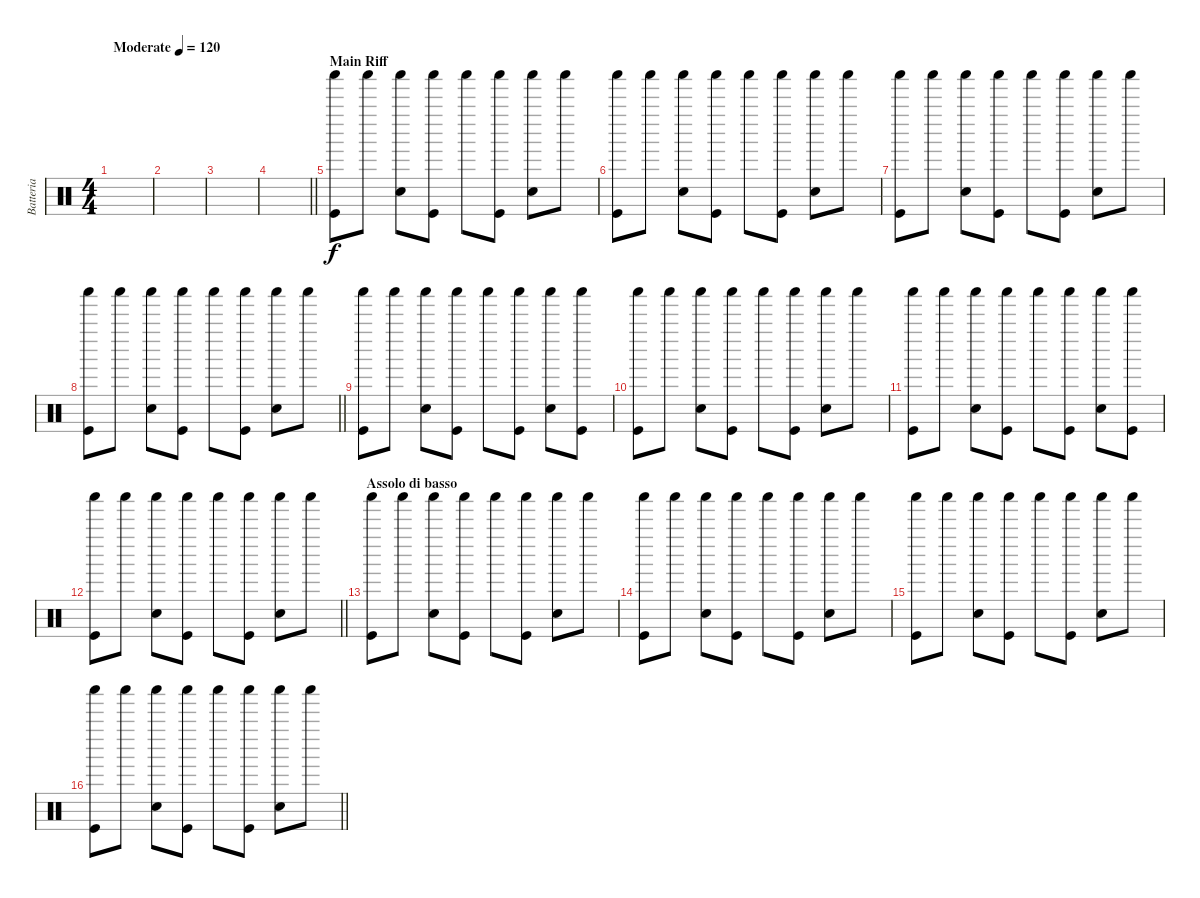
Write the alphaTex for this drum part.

\track ("Batteria" "Batteria") {instrument percussion}
\staff {score}
\articulation defaults
\ts (4 4)
\tempo (120 "Moderate")
\clef neutral
\ks c
|
|
|
\barLineRight lightlight
|
\section ("" "Main Riff")
("Shaker (hit)" "Kick (hit)").8 "Shaker (hit)".8 ("Shaker (hit)" "Snare (hit) 2").8 ("Shaker (hit)" "Kick (hit)").8 "Shaker (hit)".8 ("Shaker (hit)" "Kick (hit)").8 ("Shaker (hit)" "Snare (hit) 2").8 "Shaker (hit)".8 |
("Shaker (hit)" "Kick (hit)").8 "Shaker (hit)".8 ("Shaker (hit)" "Snare (hit) 2").8 ("Shaker (hit)" "Kick (hit)").8 "Shaker (hit)".8 ("Shaker (hit)" "Kick (hit)").8 ("Shaker (hit)" "Snare (hit) 2").8 "Shaker (hit)".8 |
("Shaker (hit)" "Kick (hit)").8 "Shaker (hit)".8 ("Shaker (hit)" "Snare (hit) 2").8 ("Shaker (hit)" "Kick (hit)").8 "Shaker (hit)".8 ("Shaker (hit)" "Kick (hit)").8 ("Shaker (hit)" "Snare (hit) 2").8 "Shaker (hit)".8 |
\barLineRight lightlight
("Shaker (hit)" "Kick (hit)").8 "Shaker (hit)".8 ("Shaker (hit)" "Snare (hit) 2").8 ("Shaker (hit)" "Kick (hit)").8 "Shaker (hit)".8 ("Shaker (hit)" "Kick (hit)").8 ("Shaker (hit)" "Snare (hit) 2").8 "Shaker (hit)".8 |
("Shaker (hit)" "Kick (hit)").8 "Shaker (hit)".8 ("Shaker (hit)" "Snare (hit) 2").8 ("Shaker (hit)" "Kick (hit)").8 "Shaker (hit)".8 ("Shaker (hit)" "Kick (hit)").8 ("Shaker (hit)" "Snare (hit) 2").8 ("Shaker (hit)" "Kick (hit)").8 |
("Shaker (hit)" "Kick (hit)").8 "Shaker (hit)".8 ("Shaker (hit)" "Snare (hit) 2").8 ("Shaker (hit)" "Kick (hit)").8 "Shaker (hit)".8 ("Shaker (hit)" "Kick (hit)").8 ("Shaker (hit)" "Snare (hit) 2").8 "Shaker (hit)".8 |
("Shaker (hit)" "Kick (hit)").8 "Shaker (hit)".8 ("Shaker (hit)" "Snare (hit) 2").8 ("Shaker (hit)" "Kick (hit)").8 "Shaker (hit)".8 ("Shaker (hit)" "Kick (hit)").8 ("Shaker (hit)" "Snare (hit) 2").8 ("Shaker (hit)" "Kick (hit)").8 |
\barLineRight lightlight
("Shaker (hit)" "Kick (hit)").8 "Shaker (hit)".8 ("Shaker (hit)" "Snare (hit) 2").8 ("Shaker (hit)" "Kick (hit)").8 "Shaker (hit)".8 ("Shaker (hit)" "Kick (hit)").8 ("Shaker (hit)" "Snare (hit) 2").8 "Shaker (hit)".8 |
\section ("" "Assolo di basso")
("Shaker (hit)" "Kick (hit)").8 "Shaker (hit)".8 ("Shaker (hit)" "Snare (hit) 2").8 ("Shaker (hit)" "Kick (hit)").8 "Shaker (hit)".8 ("Shaker (hit)" "Kick (hit)").8 ("Shaker (hit)" "Snare (hit) 2").8 "Shaker (hit)".8 |
("Shaker (hit)" "Kick (hit)").8 "Shaker (hit)".8 ("Shaker (hit)" "Snare (hit) 2").8 ("Shaker (hit)" "Kick (hit)").8 "Shaker (hit)".8 ("Shaker (hit)" "Kick (hit)").8 ("Shaker (hit)" "Snare (hit) 2").8 "Shaker (hit)".8 |
("Shaker (hit)" "Kick (hit)").8 "Shaker (hit)".8 ("Shaker (hit)" "Snare (hit) 2").8 ("Shaker (hit)" "Kick (hit)").8 "Shaker (hit)".8 ("Shaker (hit)" "Kick (hit)").8 ("Shaker (hit)" "Snare (hit) 2").8 "Shaker (hit)".8 |
\barLineRight lightlight
("Shaker (hit)" "Kick (hit)").8 "Shaker (hit)".8 ("Shaker (hit)" "Snare (hit) 2").8 ("Shaker (hit)" "Kick (hit)").8 "Shaker (hit)".8 ("Shaker (hit)" "Kick (hit)").8 ("Shaker (hit)" "Snare (hit) 2").8 "Shaker (hit)".8
